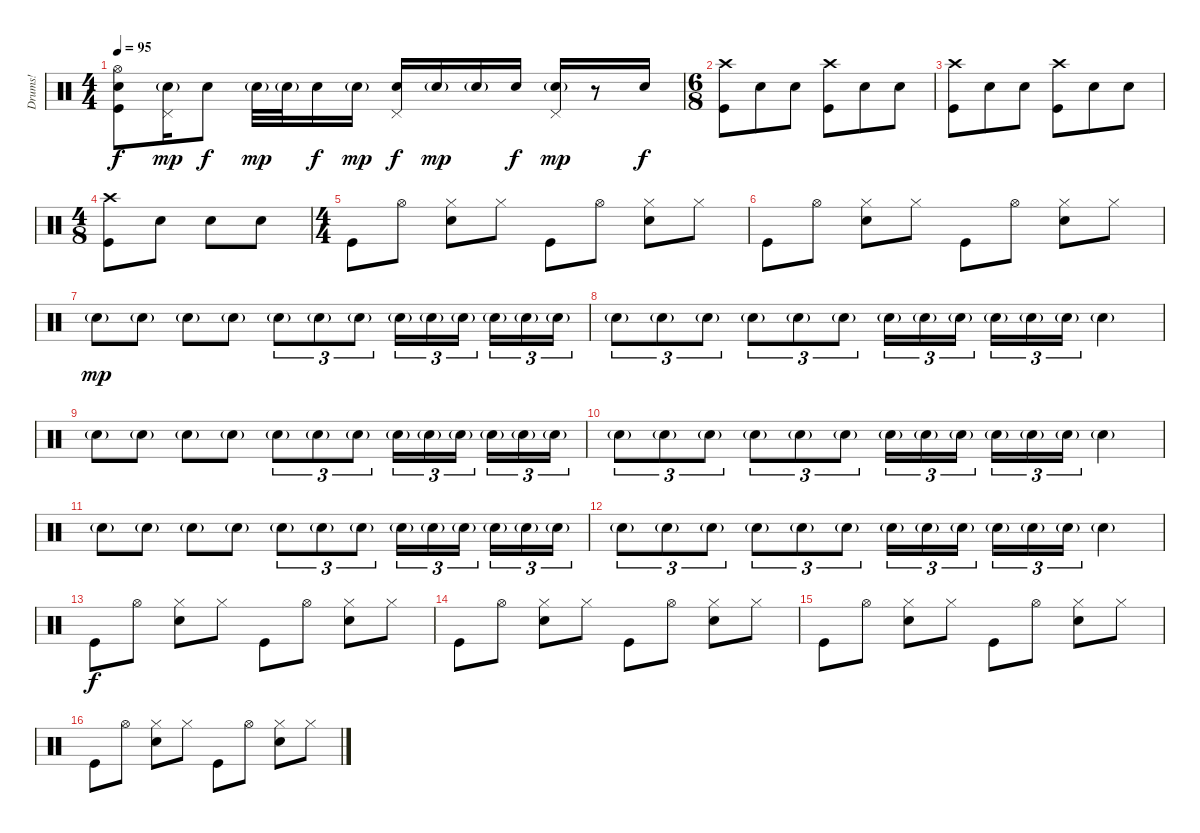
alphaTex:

\track ("Drums!" "Drums!") {instrument percussion}
\staff {score}
\articulation defaults
\ts (4 4)
\tempo 95
\clef neutral
\ks c
("Hi-Hat (open)" "Electric Snare (hit)" "Kick (hit)").8{dy f} ("Pedal Hi-Hat (hit)" "Electric Snare (hit)"{g}).16{dy mp} "Electric Snare (hit)".8{dy f} "Electric Snare (hit)"{g}.32{dy mp} "Electric Snare (hit)"{g}.32 "Electric Snare (hit)".16{dy f} "Electric Snare (hit)"{g}.16{dy mp} ("Pedal Hi-Hat (hit)" "Electric Snare (hit)").16{dy f} "Electric Snare (hit)"{g}.16{dy mp} "Electric Snare (hit)"{g}.16 "Electric Snare (hit)".16{dy f} ("Pedal Hi-Hat (hit)" "Electric Snare (hit)"{g}).16{dy mp} r.8 "Electric Snare (hit)".16{dy f} |
\ts (6 8)
("Crash high (hit)" "Kick (hit)").8 "Electric Snare (hit)".8 "Electric Snare (hit)".8 ("Crash high (hit)" "Kick (hit)").8 "Electric Snare (hit)".8 "Electric Snare (hit)".8 |
("Crash high (hit)" "Kick (hit)").8 "Electric Snare (hit)".8 "Electric Snare (hit)".8 ("Crash high (hit)" "Kick (hit)").8 "Electric Snare (hit)".8 "Electric Snare (hit)".8 |
\ts (4 8)
("Crash high (hit)" "Kick (hit)").8 "Electric Snare (hit)".8 "Electric Snare (hit)".8 "Electric Snare (hit)".8 |
\ts (4 4)
"Kick (hit)".8 "Hi-Hat (open)".8 ("Hi-Hat (closed)" "Electric Snare (hit)").8 "Hi-Hat (closed)".8 "Kick (hit)".8 "Hi-Hat (open)".8 ("Hi-Hat (closed)" "Electric Snare (hit)").8 "Hi-Hat (closed)".8 |
"Kick (hit)".8 "Hi-Hat (open)".8 ("Hi-Hat (closed)" "Electric Snare (hit)").8 "Hi-Hat (closed)".8 "Kick (hit)".8 "Hi-Hat (open)".8 ("Hi-Hat (closed)" "Electric Snare (hit)").8 "Hi-Hat (closed)".8 |
"Electric Snare (hit)"{g}.8{dy mp} "Electric Snare (hit)"{g}.8 "Electric Snare (hit)"{g}.8 "Electric Snare (hit)"{g}.8 "Electric Snare (hit)"{g}.8{tu (3 2)} "Electric Snare (hit)"{g}.8{tu (3 2)} "Electric Snare (hit)"{g}.8{tu (3 2)} "Electric Snare (hit)"{g}.16{tu (3 2)} "Electric Snare (hit)"{g}.16{tu (3 2)} "Electric Snare (hit)"{g}.16{tu (3 2) beam splitsecondary} "Electric Snare (hit)"{g}.16{tu (3 2)} "Electric Snare (hit)"{g}.16{tu (3 2)} "Electric Snare (hit)"{g}.16{tu (3 2)} |
"Electric Snare (hit)"{g}.8{tu (3 2)} "Electric Snare (hit)"{g}.8{tu (3 2)} "Electric Snare (hit)"{g}.8{tu (3 2)} "Electric Snare (hit)"{g}.8{tu (3 2)} "Electric Snare (hit)"{g}.8{tu (3 2)} "Electric Snare (hit)"{g}.8{tu (3 2)} "Electric Snare (hit)"{g}.16{tu (3 2)} "Electric Snare (hit)"{g}.16{tu (3 2)} "Electric Snare (hit)"{g}.16{tu (3 2) beam splitsecondary} "Electric Snare (hit)"{g}.16{tu (3 2)} "Electric Snare (hit)"{g}.16{tu (3 2)} "Electric Snare (hit)"{g}.16{tu (3 2)} "Electric Snare (hit)"{g}.4 |
"Electric Snare (hit)"{g}.8 "Electric Snare (hit)"{g}.8 "Electric Snare (hit)"{g}.8 "Electric Snare (hit)"{g}.8 "Electric Snare (hit)"{g}.8{tu (3 2)} "Electric Snare (hit)"{g}.8{tu (3 2)} "Electric Snare (hit)"{g}.8{tu (3 2)} "Electric Snare (hit)"{g}.16{tu (3 2)} "Electric Snare (hit)"{g}.16{tu (3 2)} "Electric Snare (hit)"{g}.16{tu (3 2) beam splitsecondary} "Electric Snare (hit)"{g}.16{tu (3 2)} "Electric Snare (hit)"{g}.16{tu (3 2)} "Electric Snare (hit)"{g}.16{tu (3 2)} |
"Electric Snare (hit)"{g}.8{tu (3 2)} "Electric Snare (hit)"{g}.8{tu (3 2)} "Electric Snare (hit)"{g}.8{tu (3 2)} "Electric Snare (hit)"{g}.8{tu (3 2)} "Electric Snare (hit)"{g}.8{tu (3 2)} "Electric Snare (hit)"{g}.8{tu (3 2)} "Electric Snare (hit)"{g}.16{tu (3 2)} "Electric Snare (hit)"{g}.16{tu (3 2)} "Electric Snare (hit)"{g}.16{tu (3 2) beam splitsecondary} "Electric Snare (hit)"{g}.16{tu (3 2)} "Electric Snare (hit)"{g}.16{tu (3 2)} "Electric Snare (hit)"{g}.16{tu (3 2)} "Electric Snare (hit)"{g}.4 |
"Electric Snare (hit)"{g}.8 "Electric Snare (hit)"{g}.8 "Electric Snare (hit)"{g}.8 "Electric Snare (hit)"{g}.8 "Electric Snare (hit)"{g}.8{tu (3 2)} "Electric Snare (hit)"{g}.8{tu (3 2)} "Electric Snare (hit)"{g}.8{tu (3 2)} "Electric Snare (hit)"{g}.16{tu (3 2)} "Electric Snare (hit)"{g}.16{tu (3 2)} "Electric Snare (hit)"{g}.16{tu (3 2) beam splitsecondary} "Electric Snare (hit)"{g}.16{tu (3 2)} "Electric Snare (hit)"{g}.16{tu (3 2)} "Electric Snare (hit)"{g}.16{tu (3 2)} |
"Electric Snare (hit)"{g}.8{tu (3 2)} "Electric Snare (hit)"{g}.8{tu (3 2)} "Electric Snare (hit)"{g}.8{tu (3 2)} "Electric Snare (hit)"{g}.8{tu (3 2)} "Electric Snare (hit)"{g}.8{tu (3 2)} "Electric Snare (hit)"{g}.8{tu (3 2)} "Electric Snare (hit)"{g}.16{tu (3 2)} "Electric Snare (hit)"{g}.16{tu (3 2)} "Electric Snare (hit)"{g}.16{tu (3 2) beam splitsecondary} "Electric Snare (hit)"{g}.16{tu (3 2)} "Electric Snare (hit)"{g}.16{tu (3 2)} "Electric Snare (hit)"{g}.16{tu (3 2)} "Electric Snare (hit)"{g}.4 |
"Kick (hit)".8{dy f} "Hi-Hat (open)".8 ("Hi-Hat (closed)" "Electric Snare (hit)").8 "Hi-Hat (closed)".8 "Kick (hit)".8 "Hi-Hat (open)".8 ("Hi-Hat (closed)" "Electric Snare (hit)").8 "Hi-Hat (closed)".8 |
"Kick (hit)".8 "Hi-Hat (open)".8 ("Hi-Hat (closed)" "Electric Snare (hit)").8 "Hi-Hat (closed)".8 "Kick (hit)".8 "Hi-Hat (open)".8 ("Hi-Hat (closed)" "Electric Snare (hit)").8 "Hi-Hat (closed)".8 |
"Kick (hit)".8 "Hi-Hat (open)".8 ("Hi-Hat (closed)" "Electric Snare (hit)").8 "Hi-Hat (closed)".8 "Kick (hit)".8 "Hi-Hat (open)".8 ("Hi-Hat (closed)" "Electric Snare (hit)").8 "Hi-Hat (closed)".8 |
"Kick (hit)".8 "Hi-Hat (open)".8 ("Hi-Hat (closed)" "Electric Snare (hit)").8 "Hi-Hat (closed)".8 "Kick (hit)".8 "Hi-Hat (open)".8 ("Hi-Hat (closed)" "Electric Snare (hit)").8 "Hi-Hat (closed)".8
